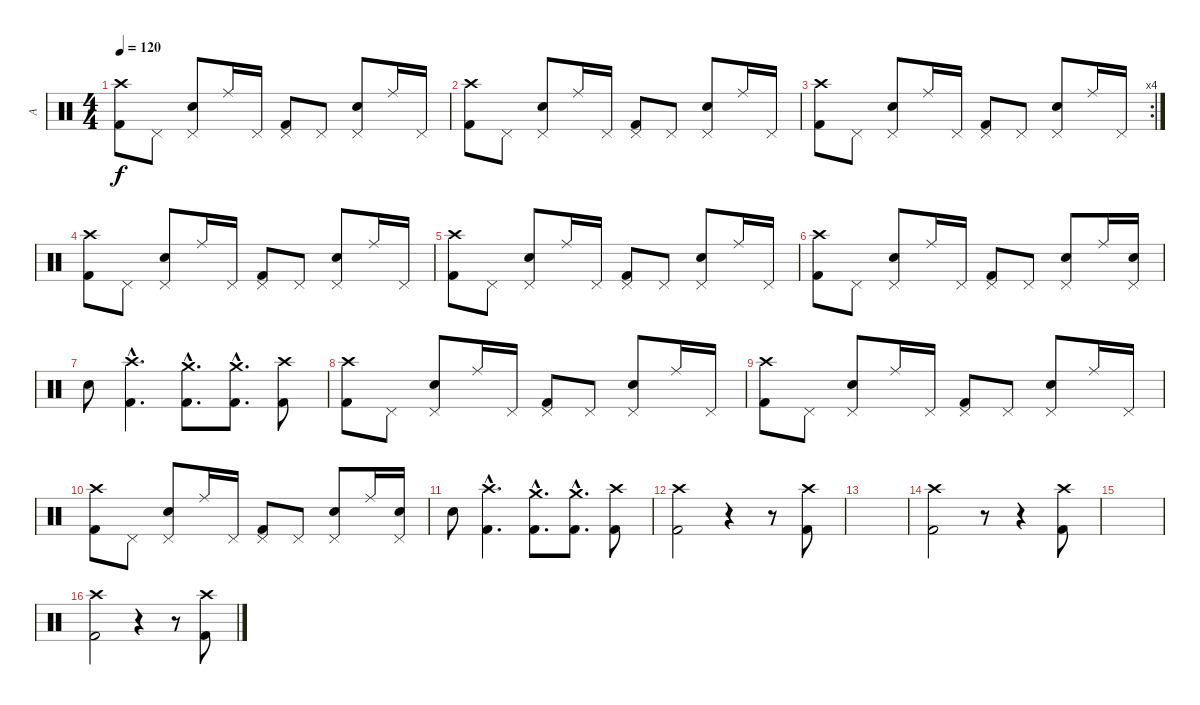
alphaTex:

\track ("A" "A") {instrument percussion}
\staff {score}
\articulation defaults
\ts (4 4)
\tempo 120
\clef neutral
\ks c
("Crash high (hit)" "Kick (hit) 2").8{dy f} "Pedal Hi-Hat (hit)".8 ("Pedal Hi-Hat (hit)" "Snare (hit) 2").8 "Ride (middle)".16 "Pedal Hi-Hat (hit)".16 ("Pedal Hi-Hat (hit)" "Kick (hit) 2").8 "Pedal Hi-Hat (hit)".8 ("Pedal Hi-Hat (hit)" "Snare (hit) 2").8 "Ride (middle)".16 "Pedal Hi-Hat (hit)".16 |
("Crash high (hit)" "Kick (hit) 2").8 "Pedal Hi-Hat (hit)".8 ("Pedal Hi-Hat (hit)" "Snare (hit) 2").8 "Ride (middle)".16 "Pedal Hi-Hat (hit)".16 ("Pedal Hi-Hat (hit)" "Kick (hit) 2").8 "Pedal Hi-Hat (hit)".8 ("Pedal Hi-Hat (hit)" "Snare (hit) 2").8 "Ride (middle)".16 "Pedal Hi-Hat (hit)".16 |
\rc 4
("Crash high (hit)" "Kick (hit) 2").8 "Pedal Hi-Hat (hit)".8 ("Pedal Hi-Hat (hit)" "Snare (hit) 2").8 "Ride (middle)".16 "Pedal Hi-Hat (hit)".16 ("Pedal Hi-Hat (hit)" "Kick (hit) 2").8 "Pedal Hi-Hat (hit)".8 ("Pedal Hi-Hat (hit)" "Snare (hit) 2").8 "Ride (middle)".16 "Pedal Hi-Hat (hit)".16 |
("Crash high (hit)" "Kick (hit) 2").8 "Pedal Hi-Hat (hit)".8 ("Pedal Hi-Hat (hit)" "Snare (hit) 2").8 "Ride (middle)".16 "Pedal Hi-Hat (hit)".16 ("Pedal Hi-Hat (hit)" "Kick (hit) 2").8 "Pedal Hi-Hat (hit)".8 ("Pedal Hi-Hat (hit)" "Snare (hit) 2").8 "Ride (middle)".16 "Pedal Hi-Hat (hit)".16 |
("Crash high (hit)" "Kick (hit) 2").8 "Pedal Hi-Hat (hit)".8 ("Pedal Hi-Hat (hit)" "Snare (hit) 2").8 "Ride (middle)".16 "Pedal Hi-Hat (hit)".16 ("Pedal Hi-Hat (hit)" "Kick (hit) 2").8 "Pedal Hi-Hat (hit)".8 ("Pedal Hi-Hat (hit)" "Snare (hit) 2").8 "Ride (middle)".16 "Pedal Hi-Hat (hit)".16 |
("Crash high (hit)" "Kick (hit) 2").8 "Pedal Hi-Hat (hit)".8 ("Pedal Hi-Hat (hit)" "Snare (hit) 2").8 "Ride (middle)".16 "Pedal Hi-Hat (hit)".16 ("Pedal Hi-Hat (hit)" "Kick (hit) 2").8 "Pedal Hi-Hat (hit)".8 ("Pedal Hi-Hat (hit)" "Snare (hit) 2").8 "Ride (middle)".16 ("Pedal Hi-Hat (hit)" "Snare (hit) 2").16 |
"Snare (hit) 2".8 ("Crash high (hit)"{hac} "Kick (hit) 2"{hac}).4{d} ("Crash medium (hit)"{hac} "Kick (hit) 2"{hac}).8{d} ("Crash medium (hit)"{hac} "Kick (hit) 2"{hac}).8{d} ("Crash high (hit)" "Kick (hit) 2").8 |
("Crash high (hit)" "Kick (hit) 2").8 "Pedal Hi-Hat (hit)".8 ("Pedal Hi-Hat (hit)" "Snare (hit) 2").8 "Ride (middle)".16 "Pedal Hi-Hat (hit)".16 ("Pedal Hi-Hat (hit)" "Kick (hit) 2").8 "Pedal Hi-Hat (hit)".8 ("Pedal Hi-Hat (hit)" "Snare (hit) 2").8 "Ride (middle)".16 "Pedal Hi-Hat (hit)".16 |
("Crash high (hit)" "Kick (hit) 2").8 "Pedal Hi-Hat (hit)".8 ("Pedal Hi-Hat (hit)" "Snare (hit) 2").8 "Ride (middle)".16 "Pedal Hi-Hat (hit)".16 ("Pedal Hi-Hat (hit)" "Kick (hit) 2").8 "Pedal Hi-Hat (hit)".8 ("Pedal Hi-Hat (hit)" "Snare (hit) 2").8 "Ride (middle)".16 "Pedal Hi-Hat (hit)".16 |
("Crash high (hit)" "Kick (hit) 2").8 "Pedal Hi-Hat (hit)".8 ("Pedal Hi-Hat (hit)" "Snare (hit) 2").8 "Ride (middle)".16 "Pedal Hi-Hat (hit)".16 ("Pedal Hi-Hat (hit)" "Kick (hit) 2").8 "Pedal Hi-Hat (hit)".8 ("Pedal Hi-Hat (hit)" "Snare (hit) 2").8 "Ride (middle)".16 ("Pedal Hi-Hat (hit)" "Snare (hit) 2").16 |
"Snare (hit) 2".8 ("Crash high (hit)"{hac} "Kick (hit) 2"{hac}).4{d} ("Crash medium (hit)"{hac} "Kick (hit) 2"{hac}).8{d} ("Crash medium (hit)"{hac} "Kick (hit) 2"{hac}).8{d} ("Crash high (hit)" "Kick (hit) 2").8 |
("Crash high (hit)" "Kick (hit) 2").2 r.4 r.8 ("Crash high (hit)" "Kick (hit) 2").8 |
|
("Crash high (hit)" "Kick (hit) 2").2 r.8 r.4 ("Crash high (hit)" "Kick (hit) 2").8 |
|
("Crash high (hit)" "Kick (hit) 2").2 r.4 r.8 ("Crash high (hit)" "Kick (hit) 2").8
